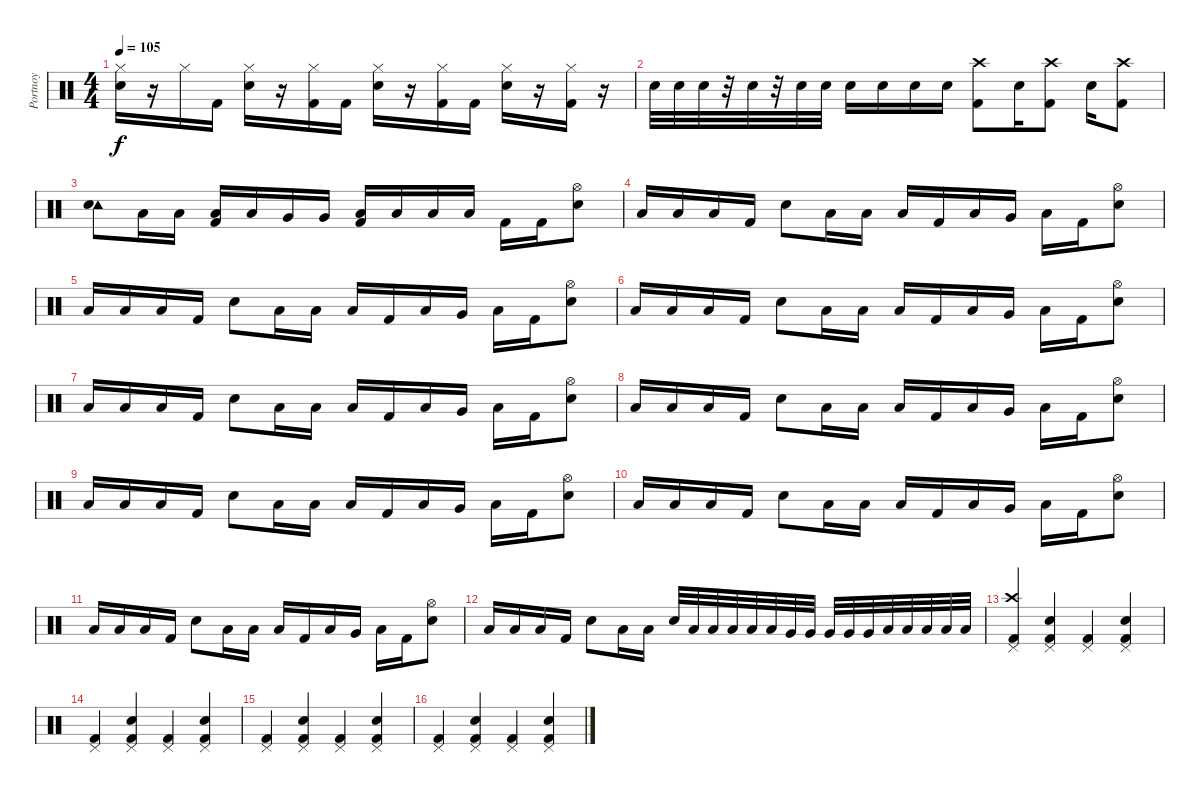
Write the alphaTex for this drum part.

\track ("Portnoy" "Portnoy") {instrument percussion}
\staff {score}
\articulation defaults
\ts (4 4)
\tempo 105
\clef neutral
\ks c
("Hi-Hat (closed)" "Electric Snare (hit)").16{dy f} r.16 "Hi-Hat (closed)".16 "Kick (hit) 2".16 ("Hi-Hat (closed)" "Electric Snare (hit)").16 r.16 ("Hi-Hat (closed)" "Kick (hit) 2").16 "Kick (hit) 2".16 ("Hi-Hat (closed)" "Electric Snare (hit)").16 r.16 ("Hi-Hat (closed)" "Kick (hit) 2").16 "Kick (hit) 2".16 ("Hi-Hat (closed)" "Electric Snare (hit)").16 r.16 ("Hi-Hat (closed)" "Kick (hit) 2").16 r.16 |
"Electric Snare (hit)".32 "Electric Snare (hit)".32 "Electric Snare (hit)".32 r.32 "Electric Snare (hit)".32 r.32 "Electric Snare (hit)".32 "Electric Snare (hit)".32 "Electric Snare (hit)".16 "Electric Snare (hit)".16 "Electric Snare (hit)".16 "Electric Snare (hit)".16 ("Crash high (hit)" "Kick (hit) 2").8 "Electric Snare (hit)".16 ("Crash high (hit)" "Kick (hit) 2").8 "Electric Snare (hit)".16 ("Crash high (hit)" "Kick (hit) 2").8 |
("Tambourine (hit)" "Electric Snare (hit)").8 "Low Floor Tom (hit)".16 "Low Tom (hit)".16 ("Low Floor Tom (hit)" "Kick (hit) 2").16 "Low Tom (hit)".16 "Very Low Tom (hit)".16 "Very Low Tom (hit)".16 ("Low Tom (hit)" "Kick (hit) 2").16 "Low Tom (hit)".16 "Low Floor Tom (hit)".16 "Low Floor Tom (hit)".16 "Kick (hit) 2".16 "Kick (hit) 2".16 ("Hi-Hat (open)" "Electric Snare (hit)").8 |
"Low Floor Tom (hit)".16 "Low Tom (hit)".16 "Low Floor Tom (hit)".16 "Kick (hit) 2".16 "Electric Snare (hit)".8 "Low Floor Tom (hit)".16 "Low Tom (hit)".16 "Low Floor Tom (hit)".16 "Kick (hit) 2".16 "Low Floor Tom (hit)".16 "Very Low Tom (hit)".16 "Low Floor Tom (hit)".16 "Kick (hit) 2".16 ("Hi-Hat (open)" "Electric Snare (hit)").8 |
"Low Floor Tom (hit)".16 "Low Tom (hit)".16 "Low Floor Tom (hit)".16 "Kick (hit) 2".16 "Electric Snare (hit)".8 "Low Floor Tom (hit)".16 "Low Tom (hit)".16 "Low Floor Tom (hit)".16 "Kick (hit) 2".16 "Low Floor Tom (hit)".16 "Very Low Tom (hit)".16 "Low Floor Tom (hit)".16 "Kick (hit) 2".16 ("Hi-Hat (open)" "Electric Snare (hit)").8 |
"Low Floor Tom (hit)".16 "Low Tom (hit)".16 "Low Floor Tom (hit)".16 "Kick (hit) 2".16 "Electric Snare (hit)".8 "Low Floor Tom (hit)".16 "Low Tom (hit)".16 "Low Floor Tom (hit)".16 "Kick (hit) 2".16 "Low Floor Tom (hit)".16 "Very Low Tom (hit)".16 "Low Floor Tom (hit)".16 "Kick (hit) 2".16 ("Hi-Hat (open)" "Electric Snare (hit)").8 |
"Low Floor Tom (hit)".16 "Low Tom (hit)".16 "Low Floor Tom (hit)".16 "Kick (hit) 2".16 "Electric Snare (hit)".8 "Low Floor Tom (hit)".16 "Low Tom (hit)".16 "Low Floor Tom (hit)".16 "Kick (hit) 2".16 "Low Floor Tom (hit)".16 "Very Low Tom (hit)".16 "Low Floor Tom (hit)".16 "Kick (hit) 2".16 ("Hi-Hat (open)" "Electric Snare (hit)").8 |
"Low Floor Tom (hit)".16 "Low Tom (hit)".16 "Low Floor Tom (hit)".16 "Kick (hit) 2".16 "Electric Snare (hit)".8 "Low Floor Tom (hit)".16 "Low Tom (hit)".16 "Low Floor Tom (hit)".16 "Kick (hit) 2".16 "Low Floor Tom (hit)".16 "Very Low Tom (hit)".16 "Low Floor Tom (hit)".16 "Kick (hit) 2".16 ("Hi-Hat (open)" "Electric Snare (hit)").8 |
"Low Floor Tom (hit)".16 "Low Tom (hit)".16 "Low Floor Tom (hit)".16 "Kick (hit) 2".16 "Electric Snare (hit)".8 "Low Floor Tom (hit)".16 "Low Tom (hit)".16 "Low Floor Tom (hit)".16 "Kick (hit) 2".16 "Low Floor Tom (hit)".16 "Very Low Tom (hit)".16 "Low Floor Tom (hit)".16 "Kick (hit) 2".16 ("Hi-Hat (open)" "Electric Snare (hit)").8 |
"Low Floor Tom (hit)".16 "Low Tom (hit)".16 "Low Floor Tom (hit)".16 "Kick (hit) 2".16 "Electric Snare (hit)".8 "Low Floor Tom (hit)".16 "Low Tom (hit)".16 "Low Floor Tom (hit)".16 "Kick (hit) 2".16 "Low Floor Tom (hit)".16 "Very Low Tom (hit)".16 "Low Floor Tom (hit)".16 "Kick (hit) 2".16 ("Hi-Hat (open)" "Electric Snare (hit)").8 |
"Low Floor Tom (hit)".16 "Low Tom (hit)".16 "Low Floor Tom (hit)".16 "Kick (hit) 2".16 "Electric Snare (hit)".8 "Low Floor Tom (hit)".16 "Low Tom (hit)".16 "Low Floor Tom (hit)".16 "Kick (hit) 2".16 "Low Floor Tom (hit)".16 "Very Low Tom (hit)".16 "Low Floor Tom (hit)".16 "Kick (hit) 2".16 ("Hi-Hat (open)" "Electric Snare (hit)").8 |
"Low Floor Tom (hit)".16 "Low Tom (hit)".16 "Low Floor Tom (hit)".16 "Kick (hit) 2".16 "Electric Snare (hit)".8 "Low Floor Tom (hit)".16 "Low Tom (hit)".16 "Electric Snare (hit)".32 "Low Tom (hit)".32 "Low Tom (hit)".32 "Low Tom (hit)".32 "Low Tom (hit)".32 "Low Tom (hit)".32 "Very Low Tom (hit)".32 "Very Low Tom (hit)".32 "Very Low Tom (hit)".32 "Very Low Tom (hit)".32 "Very Low Tom (hit)".32 "Low Floor Tom (hit)".32 "Low Floor Tom (hit)".32 "Low Floor Tom (hit)".32 "Low Floor Tom (hit)".32 "Low Floor Tom (hit)".32 |
("Crash high (hit)" "Pedal Hi-Hat (hit)" "Kick (hit) 2").4 ("Pedal Hi-Hat (hit)" "Electric Snare (hit)" "Kick (hit) 2").4 ("Pedal Hi-Hat (hit)" "Kick (hit) 2").4 ("Pedal Hi-Hat (hit)" "Electric Snare (hit)" "Kick (hit) 2").4 |
("Pedal Hi-Hat (hit)" "Kick (hit) 2").4 ("Pedal Hi-Hat (hit)" "Electric Snare (hit)" "Kick (hit) 2").4 ("Pedal Hi-Hat (hit)" "Kick (hit) 2").4 ("Pedal Hi-Hat (hit)" "Electric Snare (hit)" "Kick (hit) 2").4 |
("Pedal Hi-Hat (hit)" "Kick (hit) 2").4 ("Pedal Hi-Hat (hit)" "Electric Snare (hit)" "Kick (hit) 2").4 ("Pedal Hi-Hat (hit)" "Kick (hit) 2").4 ("Pedal Hi-Hat (hit)" "Electric Snare (hit)" "Kick (hit) 2").4 |
("Pedal Hi-Hat (hit)" "Kick (hit) 2").4 ("Pedal Hi-Hat (hit)" "Electric Snare (hit)" "Kick (hit) 2").4 ("Pedal Hi-Hat (hit)" "Kick (hit) 2").4 ("Pedal Hi-Hat (hit)" "Electric Snare (hit)" "Kick (hit) 2").4
